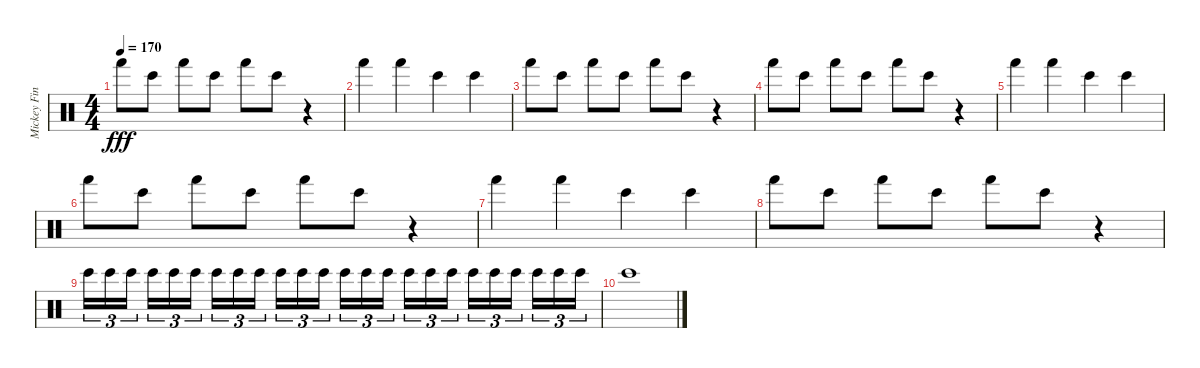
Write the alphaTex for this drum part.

\track ("Mickey Finn" "Mickey Fin") {instrument percussion}
\staff {score}
\articulation defaults
\ts (4 4)
\tempo 170
\clef neutral
\ks c "Hand (hit)".8{dy fff} "Bongo High (hit)".8 "Hand (hit)".8 "Bongo High (hit)".8 "Hand (hit)".8 "Bongo High (hit)".8
r.4 |
"Hand (hit)".4 "Hand (hit)".4 "Bongo High (hit)".4 "Bongo High (hit)".4 |
"Hand (hit)".8 "Bongo High (hit)".8 "Hand (hit)".8 "Bongo High (hit)".8 "Hand (hit)".8 "Bongo High (hit)".8 r.4 |
"Hand (hit)".8 "Bongo High (hit)".8 "Hand (hit)".8 "Bongo High (hit)".8 "Hand (hit)".8 "Bongo High (hit)".8 r.4 |
"Hand (hit)".4 "Hand (hit)".4 "Bongo High (hit)".4 "Bongo High (hit)".4 |
"Hand (hit)".8 "Bongo High (hit)".8 "Hand (hit)".8 "Bongo High (hit)".8 "Hand (hit)".8 "Bongo High (hit)".8 r.4 |
"Hand (hit)".4 "Hand (hit)".4 "Bongo High (hit)".4 "Bongo High (hit)".4 |
"Hand (hit)".8 "Bongo High (hit)".8 "Hand (hit)".8 "Bongo High (hit)".8 "Hand (hit)".8 "Bongo High (hit)".8 r.4 |
"Bongo High (hit)".16{tu (3 2)} "Bongo High (hit)".16{tu (3 2)} "Bongo High (hit)".16{tu (3 2) beam splitsecondary} "Bongo High (hit)".16{tu (3 2)} "Bongo High (hit)".16{tu (3 2)} "Bongo High (hit)".16{tu (3 2)} "Bongo High (hit)".16{tu (3 2)} "Bongo High (hit)".16{tu (3 2)} "Bongo High (hit)".16{tu (3 2) beam splitsecondary} "Bongo High (hit)".16{tu (3 2)} "Bongo High (hit)".16{tu (3 2)} "Bongo High (hit)".16{tu (3 2)} "Bongo High (hit)".16{tu (3 2)} "Bongo High (hit)".16{tu (3 2)} "Bongo High (hit)".16{tu (3 2) beam splitsecondary} "Bongo High (hit)".16{tu (3 2)} "Bongo High (hit)".16{tu (3 2)} "Bongo High (hit)".16{tu (3 2)} "Bongo High (hit)".16{tu (3 2)} "Bongo High (hit)".16{tu (3 2)} "Bongo High (hit)".16{tu (3 2) beam splitsecondary} "Bongo High (hit)".16{tu (3 2)} "Bongo High (hit)".16{tu (3 2)} "Bongo High (hit)".16{tu (3 2)} |
"Bongo High (hit)".1
